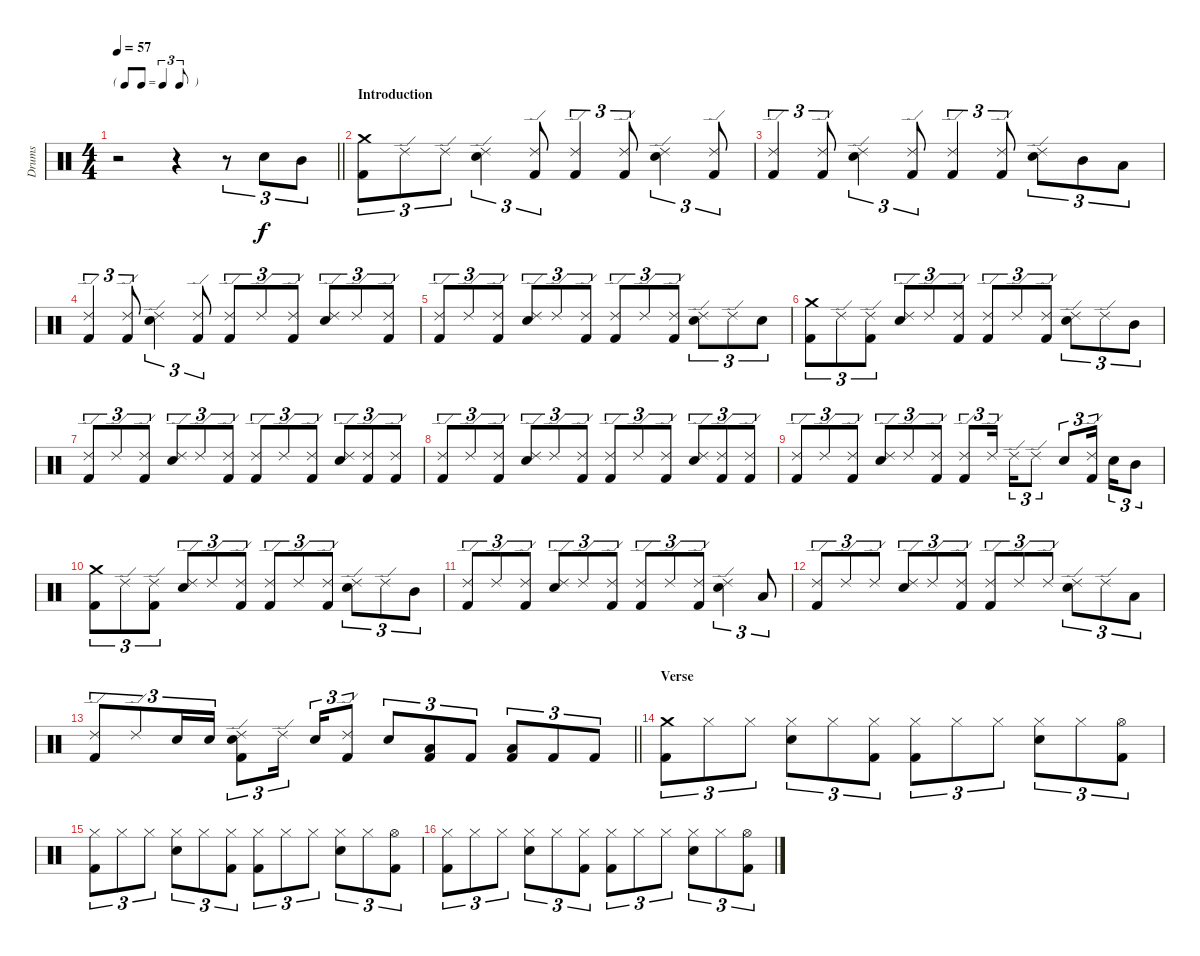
\track ("Drums" "Drums") {instrument percussion}
\staff {score}
\articulation defaults
\ts (4 4)
\tf triplet8th
\tempo 57
\clef neutral
\barLineRight lightlight
\ks c
r.2{dy f} r.4 r.8{tu (3 2)} "Snare (hit) 2".8{tu (3 2)} "Mid Tom (hit)".8{tu (3 2)} |
\section ("" "Introduction")
("Crash medium (hit)" "Kick (hit) 2").8{tu (3 2)} "Ride (edge) 2".8{tu (3 2)} "Ride (edge) 2".8{tu (3 2)} ("Ride (edge) 2" "Snare (hit) 2").4{tu (3 2)} ("Ride (edge) 2" "Kick (hit) 2").8{tu (3 2)} ("Ride (edge) 2" "Kick (hit) 2").4{tu (3 2)} ("Ride (edge) 2" "Kick (hit) 2").8{tu (3 2)} ("Ride (edge) 2" "Snare (hit) 2").4{tu (3 2)} ("Ride (edge) 2" "Kick (hit) 2").8{tu (3 2)} |
("Ride (edge) 2" "Kick (hit) 2").4{tu (3 2)} ("Ride (edge) 2" "Kick (hit) 2").8{tu (3 2)} ("Ride (edge) 2" "Snare (hit) 2").4{tu (3 2)} ("Ride (edge) 2" "Kick (hit) 2").8{tu (3 2)} ("Ride (edge) 2" "Kick (hit) 2").4{tu (3 2)} ("Ride (edge) 2" "Kick (hit) 2").8{tu (3 2)} ("Ride (edge) 2" "Snare (hit) 2").8{tu (3 2)} "Mid Tom (hit)".8{tu (3 2)} "Low Tom (hit)".8{tu (3 2)} |
("Ride (edge) 2" "Kick (hit) 2").4{tu (3 2)} ("Ride (edge) 2" "Kick (hit) 2").8{tu (3 2)} ("Ride (edge) 2" "Snare (hit) 2").4{tu (3 2)} ("Ride (edge) 2" "Kick (hit) 2").8{tu (3 2)} ("Ride (edge) 2" "Kick (hit) 2").8{tu (3 2)} "Ride (edge) 2".8{tu (3 2)} ("Ride (edge) 2" "Kick (hit) 2").8{tu (3 2)} ("Ride (edge) 2" "Snare (hit) 2").8{tu (3 2)} "Ride (edge) 2".8{tu (3 2)} ("Ride (edge) 2" "Kick (hit) 2").8{tu (3 2)} |
("Ride (edge) 2" "Kick (hit) 2").8{tu (3 2)} "Ride (edge) 2".8{tu (3 2)} ("Ride (edge) 2" "Kick (hit) 2").8{tu (3 2)} ("Ride (edge) 2" "Snare (hit) 2").8{tu (3 2)} "Ride (edge) 2".8{tu (3 2)} ("Ride (edge) 2" "Kick (hit) 2").8{tu (3 2)} ("Ride (edge) 2" "Kick (hit) 2").8{tu (3 2)} "Ride (edge) 2".8{tu (3 2)} ("Ride (edge) 2" "Kick (hit) 2").8{tu (3 2)} ("Ride (edge) 2" "Snare (hit) 2").8{tu (3 2)} "Ride (edge) 2".8{tu (3 2)} "Snare (hit) 2".8{tu (3 2)} |
("Crash medium (hit)" "Kick (hit) 2").8{tu (3 2)} "Ride (edge) 2".8{tu (3 2)} ("Ride (edge) 2" "Kick (hit) 2").8{tu (3 2)} ("Ride (edge) 2" "Snare (hit) 2").8{tu (3 2)} "Ride (edge) 2".8{tu (3 2)} ("Ride (edge) 2" "Kick (hit) 2").8{tu (3 2)} ("Ride (edge) 2" "Kick (hit) 2").8{tu (3 2)} "Ride (edge) 2".8{tu (3 2)} ("Ride (edge) 2" "Kick (hit) 2").8{tu (3 2)} ("Ride (edge) 2" "Snare (hit) 2").8{tu (3 2)} "Ride (edge) 2".8{tu (3 2)} "Mid Tom (hit)".8{tu (3 2)} |
("Ride (edge) 2" "Kick (hit) 2").8{tu (3 2)} "Ride (edge) 2".8{tu (3 2)} ("Ride (edge) 2" "Kick (hit) 2").8{tu (3 2)} ("Ride (edge) 2" "Snare (hit) 2").8{tu (3 2)} "Ride (edge) 2".8{tu (3 2)} ("Ride (edge) 2" "Kick (hit) 2").8{tu (3 2)} ("Ride (edge) 2" "Kick (hit) 2").8{tu (3 2)} "Ride (edge) 2".8{tu (3 2)} ("Ride (edge) 2" "Kick (hit) 2").8{tu (3 2)} ("Ride (edge) 2" "Snare (hit) 2").8{tu (3 2)} ("Ride (edge) 2" "Kick (hit) 2").8{tu (3 2)} ("Ride (edge) 2" "Kick (hit) 2").8{tu (3 2)} |
("Ride (edge) 2" "Kick (hit) 2").8{tu (3 2)} "Ride (edge) 2".8{tu (3 2)} ("Ride (edge) 2" "Kick (hit) 2").8{tu (3 2)} ("Ride (edge) 2" "Snare (hit) 2").8{tu (3 2)} "Ride (edge) 2".8{tu (3 2)} ("Ride (edge) 2" "Kick (hit) 2").8{tu (3 2)} ("Ride (edge) 2" "Kick (hit) 2").8{tu (3 2)} "Ride (edge) 2".8{tu (3 2)} ("Ride (edge) 2" "Kick (hit) 2").8{tu (3 2)} ("Ride (edge) 2" "Snare (hit) 2").8{tu (3 2)} ("Ride (edge) 2" "Kick (hit) 2").8{tu (3 2)} ("Ride (edge) 2" "Kick (hit) 2").8{tu (3 2)} |
("Ride (edge) 2" "Kick (hit) 2").8{tu (3 2)} "Ride (edge) 2".8{tu (3 2)} ("Ride (edge) 2" "Kick (hit) 2").8{tu (3 2)} ("Ride (edge) 2" "Snare (hit) 2").8{tu (3 2)} "Ride (edge) 2".8{tu (3 2)} ("Ride (edge) 2" "Kick (hit) 2").8{tu (3 2)} ("Ride (edge) 2" "Kick (hit) 2").8{tu (3 2)} "Ride (edge) 2".16{tu (3 2)} "Ride (edge) 2".16{tu (3 2)} "Ride (edge) 2".8{tu (3 2)} "Snare (hit) 2".8{tu (3 2)} ("Ride (edge) 2" "Kick (hit) 2").16{tu (3 2)} "Snare (hit) 2".16{tu (3 2)} "Mid Tom (hit)".8{tu (3 2)} |
("Crash medium (hit)" "Kick (hit) 2").8{tu (3 2)} "Ride (edge) 2".8{tu (3 2)} ("Ride (edge) 2" "Kick (hit) 2").8{tu (3 2)} ("Ride (edge) 2" "Snare (hit) 2").8{tu (3 2)} "Ride (edge) 2".8{tu (3 2)} ("Ride (edge) 2" "Kick (hit) 2").8{tu (3 2)} ("Ride (edge) 2" "Kick (hit) 2").8{tu (3 2)} "Ride (edge) 2".8{tu (3 2)} ("Ride (edge) 2" "Kick (hit) 2").8{tu (3 2)} ("Ride (edge) 2" "Snare (hit) 2").8{tu (3 2)} "Ride (edge) 2".8{tu (3 2)} "Mid Tom (hit)".8{tu (3 2)} |
("Ride (edge) 2" "Kick (hit) 2").8{tu (3 2)} "Ride (edge) 2".8{tu (3 2)} ("Ride (edge) 2" "Kick (hit) 2").8{tu (3 2)} ("Ride (edge) 2" "Snare (hit) 2").8{tu (3 2)} "Ride (edge) 2".8{tu (3 2)} ("Ride (edge) 2" "Kick (hit) 2").8{tu (3 2)} ("Ride (edge) 2" "Kick (hit) 2").8{tu (3 2)} "Ride (edge) 2".8{tu (3 2)} ("Ride (edge) 2" "Kick (hit) 2").8{tu (3 2)} ("Ride (edge) 2" "Snare (hit) 2").4{tu (3 2)} "Low Tom (hit)".8{tu (3 2)} |
("Ride (edge) 2" "Kick (hit) 2").8{tu (3 2)} "Ride (edge) 2".8{tu (3 2)} "Ride (edge) 2".8{tu (3 2)} ("Ride (edge) 2" "Snare (hit) 2").8{tu (3 2)} "Ride (edge) 2".8{tu (3 2)} ("Ride (edge) 2" "Kick (hit) 2").8{tu (3 2)} ("Ride (edge) 2" "Kick (hit) 2").8{tu (3 2)} "Ride (edge) 2".8{tu (3 2)} "Ride (edge) 2".8{tu (3 2)} ("Ride (edge) 2" "Snare (hit) 2").8{tu (3 2)} "Ride (edge) 2".8{tu (3 2)} "Low Tom (hit)".8{tu (3 2)} |
\barLineRight lightlight
("Ride (edge) 2" "Kick (hit) 2").8{tu (3 2)} "Ride (edge) 2".8{tu (3 2)} "Snare (hit) 2".16{tu (3 2)} "Snare (hit) 2".16{tu (3 2)} ("Ride (edge) 2" "Snare (hit) 2" "Kick (hit) 2").8{tu (3 2)} "Ride (edge) 2".16{tu (3 2)} "Snare (hit) 2".16{tu (3 2)} ("Ride (edge) 2" "Kick (hit) 2").8{tu (3 2)} "Snare (hit) 2".8{tu (3 2)} ("Low Tom (hit)" "Kick (hit) 2").8{tu (3 2)} "Kick (hit) 2".8{tu (3 2)} ("Low Tom (hit)" "Kick (hit) 2").8{tu (3 2)} "Kick (hit) 2".8{tu (3 2)} "Kick (hit) 2".8{tu (3 2)} |
\section ("" "Verse ")
("Crash medium (hit)" "Kick (hit) 2").8{tu (3 2)} "Hi-Hat (closed)".8{tu (3 2)} "Hi-Hat (closed)".8{tu (3 2)} ("Hi-Hat (closed)" "Snare (hit) 2").8{tu (3 2)} "Hi-Hat (closed)".8{tu (3 2)} ("Hi-Hat (closed)" "Kick (hit) 2").8{tu (3 2)} ("Hi-Hat (closed)" "Kick (hit) 2").8{tu (3 2)} "Hi-Hat (closed)".8{tu (3 2)} "Hi-Hat (closed)".8{tu (3 2)} ("Hi-Hat (closed)" "Snare (hit) 2").8{tu (3 2)} "Hi-Hat (closed)".8{tu (3 2)} ("Hi-Hat (open)" "Kick (hit) 2").8{tu (3 2)} |
("Hi-Hat (closed)" "Kick (hit) 2").8{tu (3 2)} "Hi-Hat (closed)".8{tu (3 2)} "Hi-Hat (closed)".8{tu (3 2)} ("Hi-Hat (closed)" "Snare (hit) 2").8{tu (3 2)} "Hi-Hat (closed)".8{tu (3 2)} ("Hi-Hat (closed)" "Kick (hit) 2").8{tu (3 2)} ("Hi-Hat (closed)" "Kick (hit) 2").8{tu (3 2)} "Hi-Hat (closed)".8{tu (3 2)} "Hi-Hat (closed)".8{tu (3 2)} ("Hi-Hat (closed)" "Snare (hit) 2").8{tu (3 2)} "Hi-Hat (closed)".8{tu (3 2)} ("Hi-Hat (open)" "Kick (hit) 2").8{tu (3 2)} |
("Hi-Hat (closed)" "Kick (hit) 2").8{tu (3 2)} "Hi-Hat (closed)".8{tu (3 2)} "Hi-Hat (closed)".8{tu (3 2)} ("Hi-Hat (closed)" "Snare (hit) 2").8{tu (3 2)} "Hi-Hat (closed)".8{tu (3 2)} ("Hi-Hat (closed)" "Kick (hit) 2").8{tu (3 2)} ("Hi-Hat (closed)" "Kick (hit) 2").8{tu (3 2)} "Hi-Hat (closed)".8{tu (3 2)} "Hi-Hat (closed)".8{tu (3 2)} ("Hi-Hat (closed)" "Snare (hit) 2").8{tu (3 2)} "Hi-Hat (closed)".8{tu (3 2)} ("Hi-Hat (open)" "Kick (hit) 2").8{tu (3 2)}
